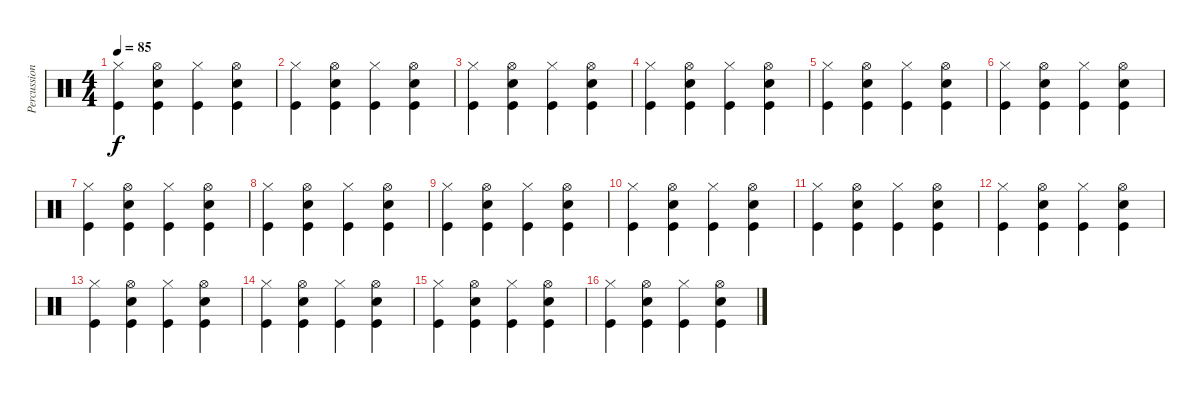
\track ("Percussions" "Percussion") {instrument percussion}
\staff {score}
\articulation defaults
\ts (4 4)
\tempo 85
\clef neutral
\ks c
("Kick (hit)" "Hi-Hat (closed)").4{dy f} ("Kick (hit)" "Snare (hit) 2" "Hi-Hat (open)").4 ("Kick (hit)" "Hi-Hat (closed)").4 ("Kick (hit)" "Snare (hit) 2" "Hi-Hat (open)").4 |
("Kick (hit)" "Hi-Hat (closed)").4 ("Kick (hit)" "Snare (hit) 2" "Hi-Hat (open)").4 ("Kick (hit)" "Hi-Hat (closed)").4 ("Kick (hit)" "Snare (hit) 2" "Hi-Hat (open)").4 |
("Kick (hit)" "Hi-Hat (closed)").4 ("Kick (hit)" "Snare (hit) 2" "Hi-Hat (open)").4 ("Kick (hit)" "Hi-Hat (closed)").4 ("Kick (hit)" "Snare (hit) 2" "Hi-Hat (open)").4 |
("Kick (hit)" "Hi-Hat (closed)").4 ("Kick (hit)" "Snare (hit) 2" "Hi-Hat (open)").4 ("Kick (hit)" "Hi-Hat (closed)").4 ("Kick (hit)" "Snare (hit) 2" "Hi-Hat (open)").4 |
("Kick (hit)" "Hi-Hat (closed)").4 ("Kick (hit)" "Snare (hit) 2" "Hi-Hat (open)").4 ("Kick (hit)" "Hi-Hat (closed)").4 ("Kick (hit)" "Snare (hit) 2" "Hi-Hat (open)").4 |
("Kick (hit)" "Hi-Hat (closed)").4 ("Kick (hit)" "Snare (hit) 2" "Hi-Hat (open)").4 ("Kick (hit)" "Hi-Hat (closed)").4 ("Kick (hit)" "Snare (hit) 2" "Hi-Hat (open)").4 |
("Kick (hit)" "Hi-Hat (closed)").4 ("Kick (hit)" "Snare (hit) 2" "Hi-Hat (open)").4 ("Kick (hit)" "Hi-Hat (closed)").4 ("Kick (hit)" "Snare (hit) 2" "Hi-Hat (open)").4 |
("Kick (hit)" "Hi-Hat (closed)").4 ("Kick (hit)" "Snare (hit) 2" "Hi-Hat (open)").4 ("Kick (hit)" "Hi-Hat (closed)").4 ("Kick (hit)" "Snare (hit) 2" "Hi-Hat (open)").4 |
("Kick (hit)" "Hi-Hat (closed)").4 ("Kick (hit)" "Snare (hit) 2" "Hi-Hat (open)").4 ("Kick (hit)" "Hi-Hat (closed)").4 ("Kick (hit)" "Snare (hit) 2" "Hi-Hat (open)").4 |
("Kick (hit)" "Hi-Hat (closed)").4 ("Kick (hit)" "Snare (hit) 2" "Hi-Hat (open)").4 ("Kick (hit)" "Hi-Hat (closed)").4 ("Kick (hit)" "Snare (hit) 2" "Hi-Hat (open)").4 |
("Kick (hit)" "Hi-Hat (closed)").4 ("Kick (hit)" "Snare (hit) 2" "Hi-Hat (open)").4 ("Kick (hit)" "Hi-Hat (closed)").4 ("Kick (hit)" "Snare (hit) 2" "Hi-Hat (open)").4 |
("Kick (hit)" "Hi-Hat (closed)").4 ("Kick (hit)" "Snare (hit) 2" "Hi-Hat (open)").4 ("Kick (hit)" "Hi-Hat (closed)").4 ("Kick (hit)" "Snare (hit) 2" "Hi-Hat (open)").4 |
("Kick (hit)" "Hi-Hat (closed)").4 ("Kick (hit)" "Snare (hit) 2" "Hi-Hat (open)").4 ("Kick (hit)" "Hi-Hat (closed)").4 ("Kick (hit)" "Snare (hit) 2" "Hi-Hat (open)").4 |
("Kick (hit)" "Hi-Hat (closed)").4 ("Kick (hit)" "Snare (hit) 2" "Hi-Hat (open)").4 ("Kick (hit)" "Hi-Hat (closed)").4 ("Kick (hit)" "Snare (hit) 2" "Hi-Hat (open)").4 |
("Kick (hit)" "Hi-Hat (closed)").4 ("Kick (hit)" "Snare (hit) 2" "Hi-Hat (open)").4 ("Kick (hit)" "Hi-Hat (closed)").4 ("Kick (hit)" "Snare (hit) 2" "Hi-Hat (open)").4 |
("Kick (hit)" "Hi-Hat (closed)").4 ("Kick (hit)" "Snare (hit) 2" "Hi-Hat (open)").4 ("Kick (hit)" "Hi-Hat (closed)").4 ("Kick (hit)" "Snare (hit) 2" "Hi-Hat (open)").4
